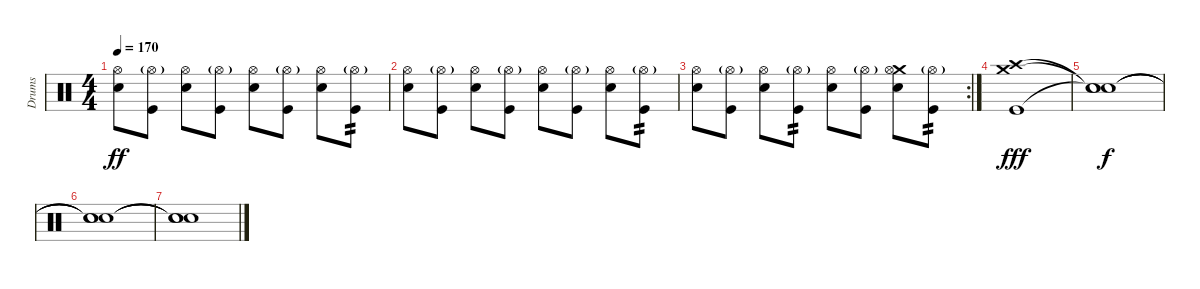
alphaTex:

\track ("Drums" "Drums") {instrument percussion}
\staff {score}
\articulation defaults
\ts (4 4)
\tempo 170
\clef neutral
\ks c
("Hi-Hat (open)" "Electric Snare (hit)").8{dy ff} ("Hi-Hat (open)"{g} "Kick (hit)").8 ("Hi-Hat (open)" "Electric Snare (hit)").8 ("Hi-Hat (open)"{g} "Kick (hit)").8 ("Hi-Hat (open)" "Electric Snare (hit)").8 ("Hi-Hat (open)"{g} "Kick (hit)").8 ("Hi-Hat (open)" "Electric Snare (hit)").8 ("Hi-Hat (open)"{g} "Kick (hit)").8{tp 2} |
("Hi-Hat (open)" "Electric Snare (hit)").8 ("Hi-Hat (open)"{g} "Kick (hit)").8 ("Hi-Hat (open)" "Electric Snare (hit)").8 ("Hi-Hat (open)"{g} "Kick (hit)").8 ("Hi-Hat (open)" "Electric Snare (hit)").8 ("Hi-Hat (open)"{g} "Kick (hit)").8 ("Hi-Hat (open)" "Electric Snare (hit)").8 ("Hi-Hat (open)"{g} "Kick (hit)").8{tp 2} |
\rc 2
("Hi-Hat (open)" "Electric Snare (hit)").8 ("Hi-Hat (open)"{g} "Kick (hit)").8 ("Hi-Hat (open)" "Electric Snare (hit)").8 ("Hi-Hat (open)"{g} "Kick (hit)").8{tp 2} ("Hi-Hat (open)" "Electric Snare (hit)").8 ("Hi-Hat (open)"{g} "Kick (hit)").8 ("Crash medium (hit)" "Hi-Hat (open)" "Electric Snare (hit)").8 ("Hi-Hat (open)"{g} "Kick (hit)").8{tp 2} |
("Crash high (hit)" "Crash medium (hit)" "Kick (hit)").1{dy fff} |
("Snare (hit)"{t} "Snare (hit)"{t} "Snare (hit)"{t}).1{dy f} |
("Snare (hit)"{t} "Snare (hit)"{t} "Snare (hit)"{t}).1 |
("Snare (hit)"{t} "Snare (hit)"{t} "Snare (hit)"{t}).1
